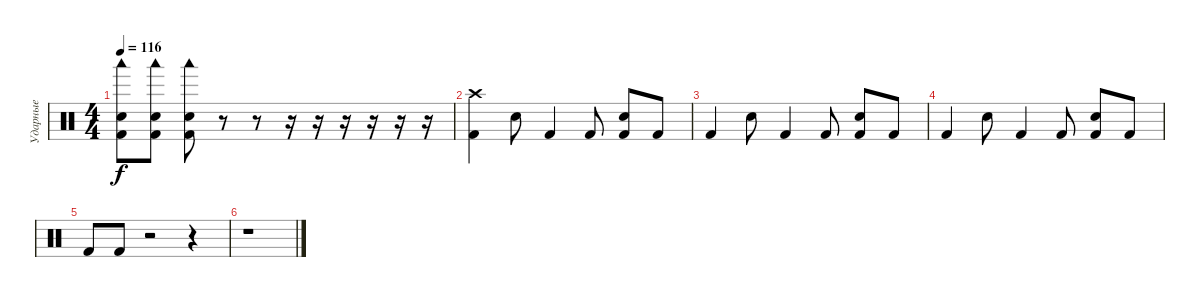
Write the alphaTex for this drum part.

\track ("Ударные" "Ударные") {instrument percussion}
\staff {score}
\articulation defaults
\ts (4 4)
\tempo 116
\clef neutral
\ks c
("Electric Snare (hit)" "Kick (hit) 2" "Woodblock low (hit)").8{dy f} ("Electric Snare (hit)" "Kick (hit) 2" "Woodblock low (hit)").8 ("Electric Snare (hit)" "Kick (hit) 2" "Woodblock low (hit)").8 r.8 r.8 r.16 r.16 r.16 r.16 r.16 r.16 |
("Crash high (hit)" "Kick (hit) 2").4 "Electric Snare (hit)".8 "Kick (hit) 2".4 "Kick (hit) 2".8 ("Electric Snare (hit)" "Kick (hit) 2").8 "Kick (hit) 2".8 |
"Kick (hit) 2".4 "Electric Snare (hit)".8 "Kick (hit) 2".4 "Kick (hit) 2".8 ("Electric Snare (hit)" "Kick (hit) 2").8 "Kick (hit) 2".8 |
"Kick (hit) 2".4 "Electric Snare (hit)".8 "Kick (hit) 2".4 "Kick (hit) 2".8 ("Electric Snare (hit)" "Kick (hit) 2").8 "Kick (hit) 2".8 |
"Kick (hit) 2".8 "Kick (hit) 2".8 r.2 r.4 |
r.1
